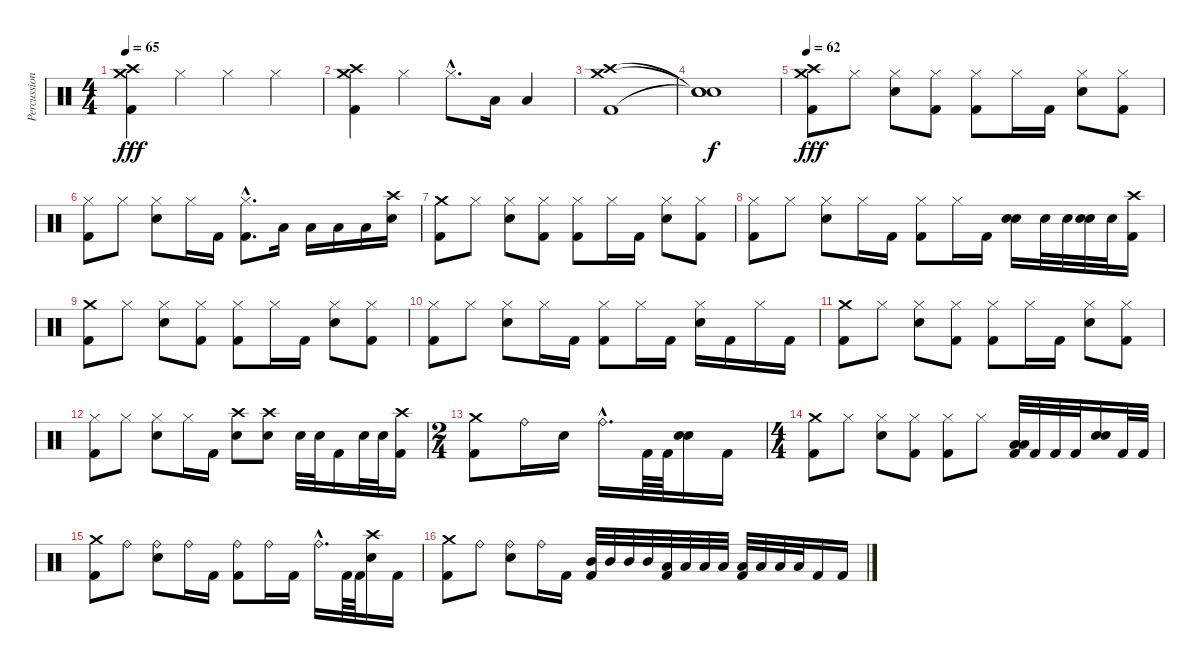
\track ("Percussion" "Percussion") {instrument percussion}
\staff {score}
\articulation defaults
\ts (4 4)
\tempo 65
\clef neutral
\ks c
("Crash medium (hit)" "Crash high (hit)" "Kick (hit) 2").4{dy fff} "Hi-Hat (closed)".4 "Hi-Hat (closed)".4 "Hi-Hat (closed)".4 |
("Crash medium (hit)" "Crash high (hit)" "Kick (hit) 2").4 "Hi-Hat (closed)".4 "Hi-Hat (closed)"{hac}.8{d} "Low Floor Tom (hit)".16 "Low Floor Tom (hit)".4 |
("Crash medium (hit)" "Crash high (hit)" "Kick (hit) 2").1 |
("Snare (hit)"{t} "Snare (hit)"{t} "Snare (hit)"{t}).1{dy f} |
\tempo 62
("Crash medium (hit)" "Crash high (hit)" "Kick (hit) 2").8{dy fff} "Hi-Hat (closed)".8 ("Hi-Hat (closed)" "Snare (hit) 2").8 ("Hi-Hat (closed)" "Kick (hit) 2").8 ("Hi-Hat (closed)" "Kick (hit) 2").8 "Hi-Hat (closed)".16 "Kick (hit) 2".16 ("Hi-Hat (closed)" "Snare (hit) 2").8 ("Hi-Hat (closed)" "Kick (hit) 2").8 |
("Hi-Hat (closed)" "Kick (hit) 2").8 "Hi-Hat (closed)".8 ("Hi-Hat (closed)" "Snare (hit) 2").8 "Hi-Hat (closed)".16 "Kick (hit) 2".16 ("Hi-Hat (closed)"{hac} "Kick (hit) 2"{hac}).8{d} "Low Tom (hit)".16 "Low Tom (hit)".16 "Low Floor Tom (hit)".16 "Low Floor Tom (hit)".16 ("Crash high (hit)" "Snare (hit) 2").16 |
("Crash medium (hit)" "Kick (hit) 2").8 "Hi-Hat (closed)".8 ("Hi-Hat (closed)" "Snare (hit) 2").8 ("Hi-Hat (closed)" "Kick (hit) 2").8 ("Hi-Hat (closed)" "Kick (hit) 2").8 "Hi-Hat (closed)".16 "Kick (hit) 2".16 ("Hi-Hat (closed)" "Snare (hit) 2").8 ("Hi-Hat (closed)" "Kick (hit) 2").8 |
("Hi-Hat (closed)" "Kick (hit) 2").8 "Hi-Hat (closed)".8 ("Hi-Hat (closed)" "Snare (hit) 2").8 "Hi-Hat (closed)".16 "Kick (hit) 2".16 ("Hi-Hat (closed)" "Kick (hit) 2").8 "Hi-Hat (closed)".16 "Kick (hit) 2".16 ("Snare (hit) 2" "Snare (hit) 2").16 "Snare (hit) 2".32 "Snare (hit) 2".32 ("Snare (hit) 2" "Snare (hit) 2").32 "Snare (hit) 2".32 ("Crash high (hit)" "Kick (hit) 2").16 |
("Crash medium (hit)" "Kick (hit) 2").8 "Hi-Hat (closed)".8 ("Hi-Hat (closed)" "Snare (hit) 2").8 ("Hi-Hat (closed)" "Kick (hit) 2").8 ("Hi-Hat (closed)" "Kick (hit) 2").8 "Hi-Hat (closed)".16 "Kick (hit) 2".16 ("Hi-Hat (closed)" "Snare (hit) 2").8 ("Hi-Hat (closed)" "Kick (hit) 2").8 |
("Hi-Hat (closed)" "Kick (hit) 2").8 "Hi-Hat (closed)".8 ("Hi-Hat (closed)" "Snare (hit) 2").8 "Hi-Hat (closed)".16 "Kick (hit) 2".16 ("Hi-Hat (closed)" "Kick (hit) 2").8 "Hi-Hat (closed)".16 "Kick (hit) 2".16 ("Hi-Hat (closed)" "Snare (hit) 2").16 "Kick (hit) 2".16 "Hi-Hat (closed)".16 "Kick (hit) 2".16 |
("Crash medium (hit)" "Kick (hit) 2").8 "Hi-Hat (closed)".8 ("Hi-Hat (closed)" "Snare (hit) 2").8 ("Hi-Hat (closed)" "Kick (hit) 2").8 ("Hi-Hat (closed)" "Kick (hit) 2").8 "Hi-Hat (closed)".16 "Kick (hit) 2".16 ("Hi-Hat (closed)" "Snare (hit) 2").8 ("Hi-Hat (closed)" "Kick (hit) 2").8 |
("Hi-Hat (closed)" "Kick (hit) 2").8 "Hi-Hat (closed)".8 ("Hi-Hat (closed)" "Snare (hit) 2").8 "Hi-Hat (closed)".16 "Kick (hit) 2".16 ("Crash high (hit)" "Snare (hit) 2").8 ("Crash high (hit)" "Snare (hit) 2").8 "Snare (hit) 2".32 "Snare (hit) 2".32 "Kick (hit) 2".16 "Snare (hit) 2".32 "Snare (hit) 2".32 ("Crash high (hit)" "Kick (hit) 2").16 |
\ts (2 4)
("Crash medium (hit)" "Kick (hit) 2").8 "Ride (bell)".16 "Snare (hit) 2".16 "Ride (bell)"{hac}.16{d} "Kick (hit) 2".64 "Kick (hit) 2".64 ("Snare (hit) 2" "Snare (hit) 2").16 "Kick (hit) 2".16 |
\ts (4 4)
("Crash medium (hit)" "Kick (hit) 2").8 "Hi-Hat (closed)".8 ("Hi-Hat (closed)" "Snare (hit) 2").8 ("Hi-Hat (closed)" "Kick (hit) 2").8 ("Hi-Hat (closed)" "Kick (hit) 2").8 "Hi-Hat (closed)".8 ("Low Floor Tom (hit)" "Low Floor Tom (hit)" "Kick (hit) 2").32 "Kick (hit) 2".32 "Kick (hit) 2".32 "Kick (hit) 2".32 ("Snare (hit) 2" "Snare (hit) 2").16 "Kick (hit) 2".32 "Kick (hit) 2".32 |
("Crash medium (hit)" "Kick (hit) 2").8 "Ride (bell)".8 ("Ride (bell)" "Snare (hit) 2").8 "Ride (bell)".16 "Kick (hit) 2".16 ("Ride (bell)" "Kick (hit) 2").8 "Ride (bell)".16 "Kick (hit) 2".16 "Ride (bell)"{hac}.16{d} "Kick (hit) 2".64 "Kick (hit) 2".64 ("Crash high (hit)" "Snare (hit) 2").16 "Kick (hit) 2".16 |
("Crash medium (hit)" "Kick (hit) 2").8 "Ride (bell)".8 ("Ride (bell)" "Snare (hit) 2").8 "Ride (bell)".16 "Kick (hit) 2".16 ("Mid Tom (hit)" "Kick (hit) 2").32 "Mid Tom (hit)".32 "Mid Tom (hit)".32 "Mid Tom (hit)".32 ("Low Tom (hit)" "Kick (hit) 2").32 "Low Tom (hit)".32 "Low Tom (hit)".32 "Low Tom (hit)".32 ("Low Floor Tom (hit)" "Kick (hit) 2").32 "Low Floor Tom (hit)".32 "Low Floor Tom (hit)".32 "Low Floor Tom (hit)".32 "Kick (hit) 2".16 "Kick (hit) 2".16
